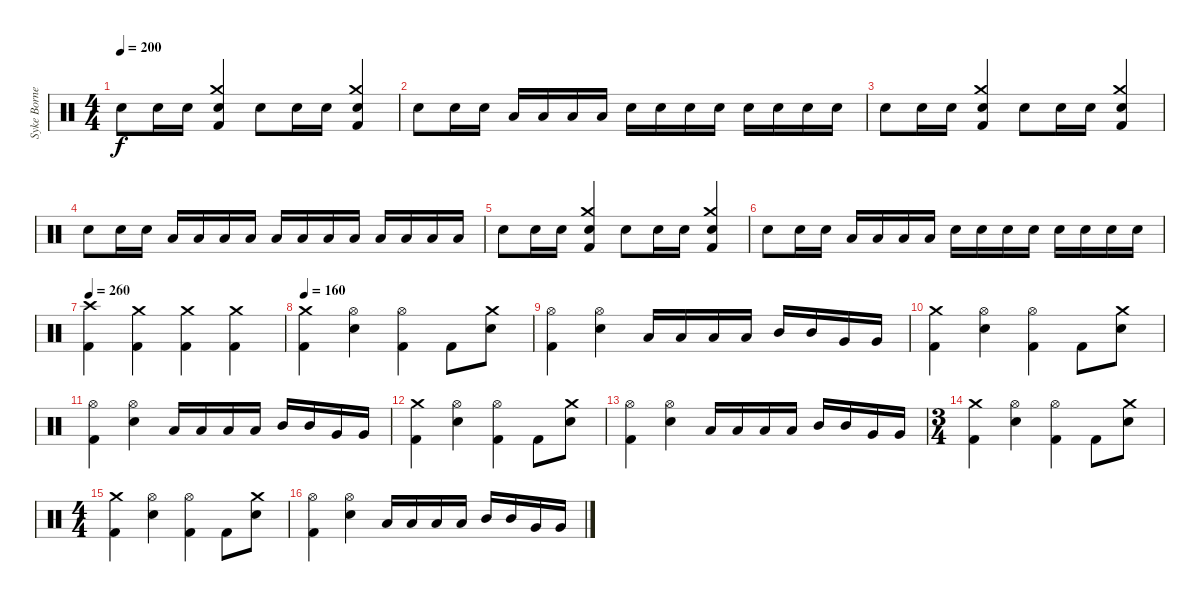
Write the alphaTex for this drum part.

\track ("Syke Bornetto (Drums)" "Syke Borne") {instrument percussion}
\staff {score}
\articulation defaults
\ts (4 4)
\tempo 200
\clef neutral
\ks c "Electric Snare (hit)".8{dy f} "Electric Snare (hit)".16 "Electric Snare (hit)".16
("Crash medium (hit)" "Electric Snare (hit)" "Kick (hit) 2").4 "Electric Snare (hit)".8 "Electric Snare (hit)".16 "Electric Snare (hit)".16 ("Crash medium (hit)" "Electric Snare (hit)" "Kick (hit) 2").4 |
"Electric Snare (hit)".8 "Electric Snare (hit)".16 "Electric Snare (hit)".16 "Low Floor Tom (hit)".16 "Low Floor Tom (hit)".16 "Low Floor Tom (hit)".16 "Low Floor Tom (hit)".16 "Electric Snare (hit)".16 "Electric Snare (hit)".16 "Electric Snare (hit)".16 "Electric Snare (hit)".16 "Electric Snare (hit)".16 "Electric Snare (hit)".16 "Electric Snare (hit)".16 "Electric Snare (hit)".16 |
"Electric Snare (hit)".8 "Electric Snare (hit)".16 "Electric Snare (hit)".16 ("Crash medium (hit)" "Electric Snare (hit)" "Kick (hit) 2").4 "Electric Snare (hit)".8 "Electric Snare (hit)".16 "Electric Snare (hit)".16 ("Crash medium (hit)" "Electric Snare (hit)" "Kick (hit) 2").4 |
"Electric Snare (hit)".8 "Electric Snare (hit)".16 "Electric Snare (hit)".16 "Low Floor Tom (hit)".16 "Low Floor Tom (hit)".16 "Low Floor Tom (hit)".16 "Low Floor Tom (hit)".16 "Low Floor Tom (hit)".16 "Low Floor Tom (hit)".16 "Low Floor Tom (hit)".16 "Low Floor Tom (hit)".16 "Low Floor Tom (hit)".16 "Low Floor Tom (hit)".16 "Low Floor Tom (hit)".16 "Low Floor Tom (hit)".16 |
"Electric Snare (hit)".8 "Electric Snare (hit)".16 "Electric Snare (hit)".16 ("Crash medium (hit)" "Electric Snare (hit)" "Kick (hit) 2").4 "Electric Snare (hit)".8 "Electric Snare (hit)".16 "Electric Snare (hit)".16 ("Crash medium (hit)" "Electric Snare (hit)" "Kick (hit) 2").4 |
"Electric Snare (hit)".8 "Electric Snare (hit)".16 "Electric Snare (hit)".16 "Low Floor Tom (hit)".16 "Low Floor Tom (hit)".16 "Low Floor Tom (hit)".16 "Low Floor Tom (hit)".16 "Electric Snare (hit)".16 "Electric Snare (hit)".16 "Electric Snare (hit)".16 "Electric Snare (hit)".16 "Electric Snare (hit)".16 "Electric Snare (hit)".16 "Electric Snare (hit)".16 "Electric Snare (hit)".16 |
\tempo 260
("Crash high (hit)" "Kick (hit) 2").4 ("Crash medium (hit)" "Kick (hit) 2").4 ("Crash medium (hit)" "Kick (hit) 2").4 ("Crash medium (hit)" "Kick (hit) 2").4 |
\tempo 160
("Crash medium (hit)" "Kick (hit) 2").4 ("Hi-Hat (open)" "Electric Snare (hit)").4 ("Hi-Hat (open)" "Kick (hit) 2").4 "Kick (hit) 2".8 ("Crash medium (hit)" "Electric Snare (hit)").8 |
("Hi-Hat (open)" "Kick (hit) 2").4 ("Hi-Hat (open)" "Electric Snare (hit)").4 "Low Floor Tom (hit)".16 "Low Floor Tom (hit)".16 "Low Tom (hit)".16 "Low Tom (hit)".16 "Mid Tom (hit)".16 "Mid Tom (hit)".16 "Very Low Tom (hit)".16 "Very Low Tom (hit)".16 |
("Crash medium (hit)" "Kick (hit) 2").4 ("Hi-Hat (open)" "Electric Snare (hit)").4 ("Hi-Hat (open)" "Kick (hit) 2").4 "Kick (hit) 2".8 ("Crash medium (hit)" "Electric Snare (hit)").8 |
("Hi-Hat (open)" "Kick (hit) 2").4 ("Hi-Hat (open)" "Electric Snare (hit)").4 "Low Floor Tom (hit)".16 "Low Floor Tom (hit)".16 "Low Tom (hit)".16 "Low Tom (hit)".16 "Mid Tom (hit)".16 "Mid Tom (hit)".16 "Very Low Tom (hit)".16 "Very Low Tom (hit)".16 |
("Crash medium (hit)" "Kick (hit) 2").4 ("Hi-Hat (open)" "Electric Snare (hit)").4 ("Hi-Hat (open)" "Kick (hit) 2").4 "Kick (hit) 2".8 ("Crash medium (hit)" "Electric Snare (hit)").8 |
("Hi-Hat (open)" "Kick (hit) 2").4 ("Hi-Hat (open)" "Electric Snare (hit)").4 "Low Floor Tom (hit)".16 "Low Floor Tom (hit)".16 "Low Tom (hit)".16 "Low Tom (hit)".16 "Mid Tom (hit)".16 "Mid Tom (hit)".16 "Very Low Tom (hit)".16 "Very Low Tom (hit)".16 |
\ts (3 4)
("Crash medium (hit)" "Kick (hit) 2").4 ("Hi-Hat (open)" "Electric Snare (hit)").4 ("Hi-Hat (open)" "Kick (hit) 2").4 "Kick (hit) 2".8 ("Crash medium (hit)" "Electric Snare (hit)").8 |
\ts (4 4)
("Crash medium (hit)" "Kick (hit) 2").4 ("Hi-Hat (open)" "Electric Snare (hit)").4 ("Hi-Hat (open)" "Kick (hit) 2").4 "Kick (hit) 2".8 ("Crash medium (hit)" "Electric Snare (hit)").8 |
("Hi-Hat (open)" "Kick (hit) 2").4 ("Hi-Hat (open)" "Electric Snare (hit)").4 "Low Floor Tom (hit)".16 "Low Floor Tom (hit)".16 "Low Tom (hit)".16 "Low Tom (hit)".16 "Mid Tom (hit)".16 "Mid Tom (hit)".16 "Very Low Tom (hit)".16 "Very Low Tom (hit)".16
